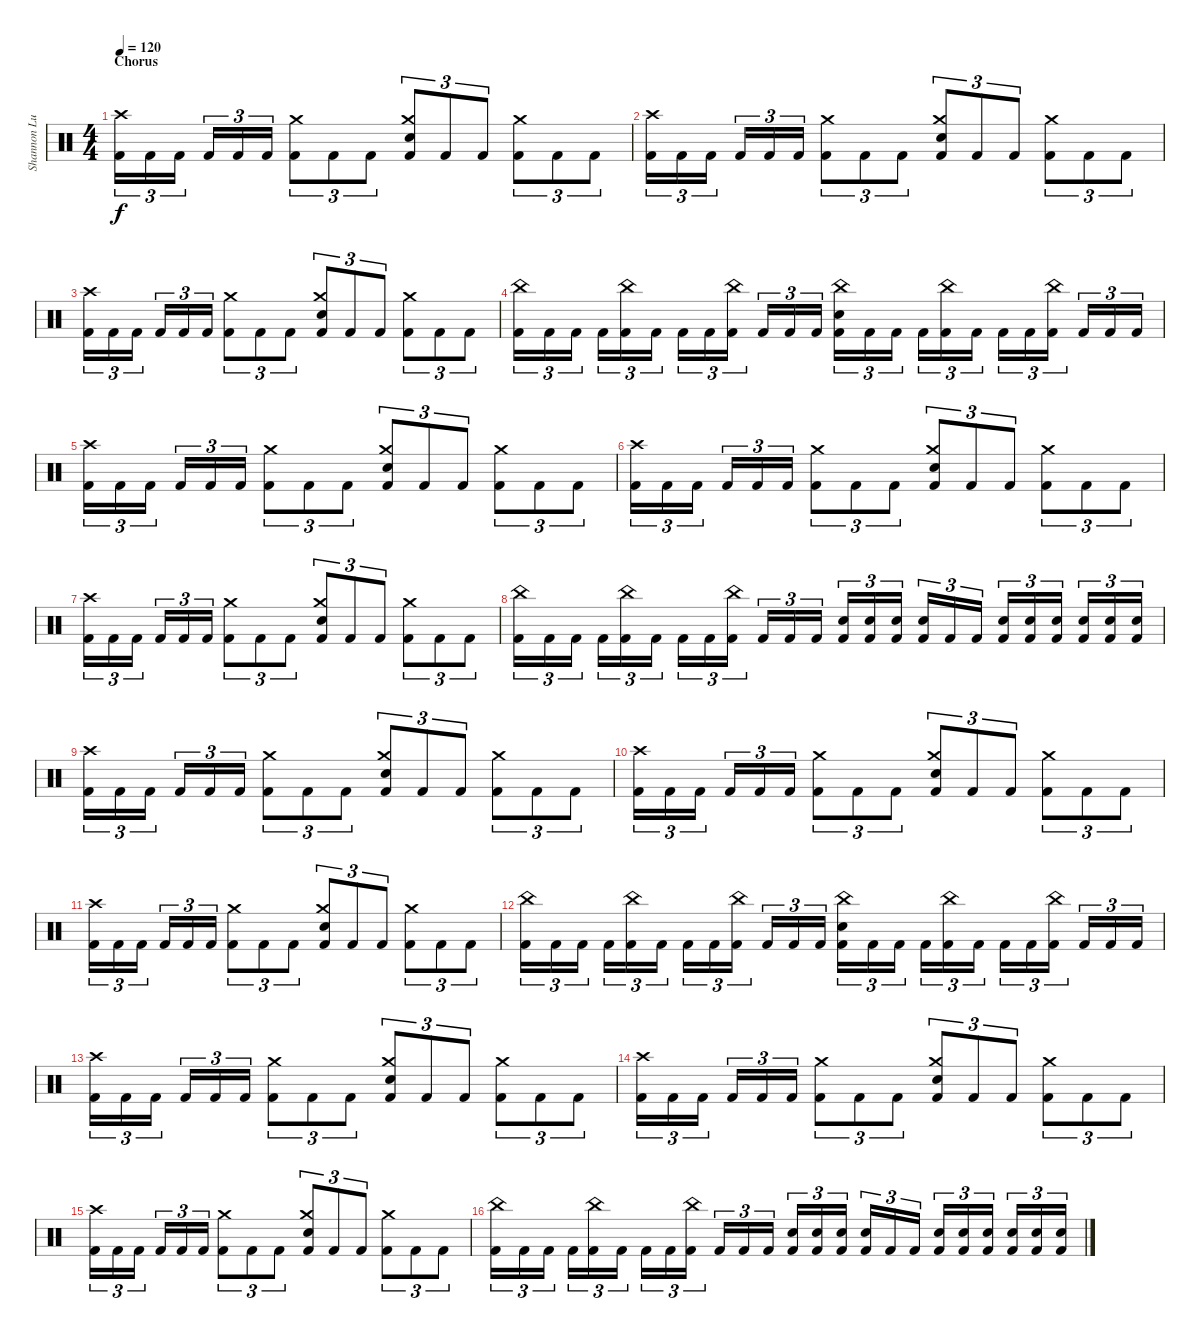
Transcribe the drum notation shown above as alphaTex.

\track ("Shannon Lucas (Drums)" "Shannon Lu") {instrument percussion}
\staff {score}
\articulation defaults
\ts (4 4)
\section ("" "Chorus")
\tempo 120
\clef neutral
\ks c
("Crash high (hit)" "Kick (hit) 2").16{tu (3 2) dy f} "Kick (hit) 2".16{tu (3 2)} "Kick (hit) 2".16{tu (3 2)} "Kick (hit) 2".16{tu (3 2)} "Kick (hit) 2".16{tu (3 2)} "Kick (hit) 2".16{tu (3 2)} ("Crash medium (hit)" "Kick (hit) 2").8{tu (3 2)} "Kick (hit) 2".8{tu (3 2)} "Kick (hit) 2".8{tu (3 2)} ("Crash medium (hit)" "Snare (hit) 2" "Kick (hit) 2").8{tu (3 2)} "Kick (hit) 2".8{tu (3 2)} "Kick (hit) 2".8{tu (3 2)} ("Crash medium (hit)" "Kick (hit) 2").8{tu (3 2)} "Kick (hit) 2".8{tu (3 2)} "Kick (hit) 2".8{tu (3 2)} |
("Crash high (hit)" "Kick (hit) 2").16{tu (3 2)} "Kick (hit) 2".16{tu (3 2)} "Kick (hit) 2".16{tu (3 2)} "Kick (hit) 2".16{tu (3 2)} "Kick (hit) 2".16{tu (3 2)} "Kick (hit) 2".16{tu (3 2)} ("Crash medium (hit)" "Kick (hit) 2").8{tu (3 2)} "Kick (hit) 2".8{tu (3 2)} "Kick (hit) 2".8{tu (3 2)} ("Crash medium (hit)" "Snare (hit) 2" "Kick (hit) 2").8{tu (3 2)} "Kick (hit) 2".8{tu (3 2)} "Kick (hit) 2".8{tu (3 2)} ("Crash medium (hit)" "Kick (hit) 2").8{tu (3 2)} "Kick (hit) 2".8{tu (3 2)} "Kick (hit) 2".8{tu (3 2)} |
("Crash high (hit)" "Kick (hit) 2").16{tu (3 2)} "Kick (hit) 2".16{tu (3 2)} "Kick (hit) 2".16{tu (3 2)} "Kick (hit) 2".16{tu (3 2)} "Kick (hit) 2".16{tu (3 2)} "Kick (hit) 2".16{tu (3 2)} ("Crash medium (hit)" "Kick (hit) 2").8{tu (3 2)} "Kick (hit) 2".8{tu (3 2)} "Kick (hit) 2".8{tu (3 2)} ("Crash medium (hit)" "Snare (hit) 2" "Kick (hit) 2").8{tu (3 2)} "Kick (hit) 2".8{tu (3 2)} "Kick (hit) 2".8{tu (3 2)} ("Crash medium (hit)" "Kick (hit) 2").8{tu (3 2)} "Kick (hit) 2".8{tu (3 2)} "Kick (hit) 2".8{tu (3 2)} |
("China (hit)" "Kick (hit) 2").16{tu (3 2)} "Kick (hit) 2".16{tu (3 2)} "Kick (hit) 2".16{tu (3 2)} "Kick (hit) 2".16{tu (3 2)} ("China (hit)" "Kick (hit) 2").16{tu (3 2)} "Kick (hit) 2".16{tu (3 2)} "Kick (hit) 2".16{tu (3 2)} "Kick (hit) 2".16{tu (3 2)} ("China (hit)" "Kick (hit) 2").16{tu (3 2)} "Kick (hit) 2".16{tu (3 2)} "Kick (hit) 2".16{tu (3 2)} "Kick (hit) 2".16{tu (3 2)} ("Snare (hit) 2" "China (hit)" "Kick (hit) 2").16{tu (3 2)} "Kick (hit) 2".16{tu (3 2)} "Kick (hit) 2".16{tu (3 2)} "Kick (hit) 2".16{tu (3 2)} ("China (hit)" "Kick (hit) 2").16{tu (3 2)} "Kick (hit) 2".16{tu (3 2)} "Kick (hit) 2".16{tu (3 2)} "Kick (hit) 2".16{tu (3 2)} ("China (hit)" "Kick (hit) 2").16{tu (3 2)} "Kick (hit) 2".16{tu (3 2)} "Kick (hit) 2".16{tu (3 2)} "Kick (hit) 2".16{tu (3 2)} |
("Crash high (hit)" "Kick (hit) 2").16{tu (3 2)} "Kick (hit) 2".16{tu (3 2)} "Kick (hit) 2".16{tu (3 2)} "Kick (hit) 2".16{tu (3 2)} "Kick (hit) 2".16{tu (3 2)} "Kick (hit) 2".16{tu (3 2)} ("Crash medium (hit)" "Kick (hit) 2").8{tu (3 2)} "Kick (hit) 2".8{tu (3 2)} "Kick (hit) 2".8{tu (3 2)} ("Crash medium (hit)" "Snare (hit) 2" "Kick (hit) 2").8{tu (3 2)} "Kick (hit) 2".8{tu (3 2)} "Kick (hit) 2".8{tu (3 2)} ("Crash medium (hit)" "Kick (hit) 2").8{tu (3 2)} "Kick (hit) 2".8{tu (3 2)} "Kick (hit) 2".8{tu (3 2)} |
("Crash high (hit)" "Kick (hit) 2").16{tu (3 2)} "Kick (hit) 2".16{tu (3 2)} "Kick (hit) 2".16{tu (3 2)} "Kick (hit) 2".16{tu (3 2)} "Kick (hit) 2".16{tu (3 2)} "Kick (hit) 2".16{tu (3 2)} ("Crash medium (hit)" "Kick (hit) 2").8{tu (3 2)} "Kick (hit) 2".8{tu (3 2)} "Kick (hit) 2".8{tu (3 2)} ("Crash medium (hit)" "Snare (hit) 2" "Kick (hit) 2").8{tu (3 2)} "Kick (hit) 2".8{tu (3 2)} "Kick (hit) 2".8{tu (3 2)} ("Crash medium (hit)" "Kick (hit) 2").8{tu (3 2)} "Kick (hit) 2".8{tu (3 2)} "Kick (hit) 2".8{tu (3 2)} |
("Crash high (hit)" "Kick (hit) 2").16{tu (3 2)} "Kick (hit) 2".16{tu (3 2)} "Kick (hit) 2".16{tu (3 2)} "Kick (hit) 2".16{tu (3 2)} "Kick (hit) 2".16{tu (3 2)} "Kick (hit) 2".16{tu (3 2)} ("Crash medium (hit)" "Kick (hit) 2").8{tu (3 2)} "Kick (hit) 2".8{tu (3 2)} "Kick (hit) 2".8{tu (3 2)} ("Crash medium (hit)" "Snare (hit) 2" "Kick (hit) 2").8{tu (3 2)} "Kick (hit) 2".8{tu (3 2)} "Kick (hit) 2".8{tu (3 2)} ("Crash medium (hit)" "Kick (hit) 2").8{tu (3 2)} "Kick (hit) 2".8{tu (3 2)} "Kick (hit) 2".8{tu (3 2)} |
("China (hit)" "Kick (hit) 2").16{tu (3 2)} "Kick (hit) 2".16{tu (3 2)} "Kick (hit) 2".16{tu (3 2)} "Kick (hit) 2".16{tu (3 2)} ("China (hit)" "Kick (hit) 2").16{tu (3 2)} "Kick (hit) 2".16{tu (3 2)} "Kick (hit) 2".16{tu (3 2)} "Kick (hit) 2".16{tu (3 2)} ("China (hit)" "Kick (hit) 2").16{tu (3 2)} "Kick (hit) 2".16{tu (3 2)} "Kick (hit) 2".16{tu (3 2)} "Kick (hit) 2".16{tu (3 2)} ("Snare (hit) 2" "Kick (hit) 2").16{tu (3 2)} ("Snare (hit) 2" "Kick (hit) 2").16{tu (3 2)} ("Snare (hit) 2" "Kick (hit) 2").16{tu (3 2)} ("Snare (hit) 2" "Kick (hit) 2").16{tu (3 2)} "Kick (hit) 2".16{tu (3 2)} "Kick (hit) 2".16{tu (3 2)} ("Snare (hit) 2" "Kick (hit) 2").16{tu (3 2)} ("Snare (hit) 2" "Kick (hit) 2").16{tu (3 2)} ("Snare (hit) 2" "Kick (hit) 2").16{tu (3 2)} ("Snare (hit) 2" "Kick (hit) 2").16{tu (3 2)} ("Snare (hit) 2" "Kick (hit) 2").16{tu (3 2)} ("Snare (hit) 2" "Kick (hit) 2").16{tu (3 2)} |
("Crash high (hit)" "Kick (hit) 2").16{tu (3 2)} "Kick (hit) 2".16{tu (3 2)} "Kick (hit) 2".16{tu (3 2)} "Kick (hit) 2".16{tu (3 2)} "Kick (hit) 2".16{tu (3 2)} "Kick (hit) 2".16{tu (3 2)} ("Crash medium (hit)" "Kick (hit) 2").8{tu (3 2)} "Kick (hit) 2".8{tu (3 2)} "Kick (hit) 2".8{tu (3 2)} ("Crash medium (hit)" "Snare (hit) 2" "Kick (hit) 2").8{tu (3 2)} "Kick (hit) 2".8{tu (3 2)} "Kick (hit) 2".8{tu (3 2)} ("Crash medium (hit)" "Kick (hit) 2").8{tu (3 2)} "Kick (hit) 2".8{tu (3 2)} "Kick (hit) 2".8{tu (3 2)} |
("Crash high (hit)" "Kick (hit) 2").16{tu (3 2)} "Kick (hit) 2".16{tu (3 2)} "Kick (hit) 2".16{tu (3 2)} "Kick (hit) 2".16{tu (3 2)} "Kick (hit) 2".16{tu (3 2)} "Kick (hit) 2".16{tu (3 2)} ("Crash medium (hit)" "Kick (hit) 2").8{tu (3 2)} "Kick (hit) 2".8{tu (3 2)} "Kick (hit) 2".8{tu (3 2)} ("Crash medium (hit)" "Snare (hit) 2" "Kick (hit) 2").8{tu (3 2)} "Kick (hit) 2".8{tu (3 2)} "Kick (hit) 2".8{tu (3 2)} ("Crash medium (hit)" "Kick (hit) 2").8{tu (3 2)} "Kick (hit) 2".8{tu (3 2)} "Kick (hit) 2".8{tu (3 2)} |
("Crash high (hit)" "Kick (hit) 2").16{tu (3 2)} "Kick (hit) 2".16{tu (3 2)} "Kick (hit) 2".16{tu (3 2)} "Kick (hit) 2".16{tu (3 2)} "Kick (hit) 2".16{tu (3 2)} "Kick (hit) 2".16{tu (3 2)} ("Crash medium (hit)" "Kick (hit) 2").8{tu (3 2)} "Kick (hit) 2".8{tu (3 2)} "Kick (hit) 2".8{tu (3 2)} ("Crash medium (hit)" "Snare (hit) 2" "Kick (hit) 2").8{tu (3 2)} "Kick (hit) 2".8{tu (3 2)} "Kick (hit) 2".8{tu (3 2)} ("Crash medium (hit)" "Kick (hit) 2").8{tu (3 2)} "Kick (hit) 2".8{tu (3 2)} "Kick (hit) 2".8{tu (3 2)} |
("China (hit)" "Kick (hit) 2").16{tu (3 2)} "Kick (hit) 2".16{tu (3 2)} "Kick (hit) 2".16{tu (3 2)} "Kick (hit) 2".16{tu (3 2)} ("China (hit)" "Kick (hit) 2").16{tu (3 2)} "Kick (hit) 2".16{tu (3 2)} "Kick (hit) 2".16{tu (3 2)} "Kick (hit) 2".16{tu (3 2)} ("China (hit)" "Kick (hit) 2").16{tu (3 2)} "Kick (hit) 2".16{tu (3 2)} "Kick (hit) 2".16{tu (3 2)} "Kick (hit) 2".16{tu (3 2)} ("Snare (hit) 2" "China (hit)" "Kick (hit) 2").16{tu (3 2)} "Kick (hit) 2".16{tu (3 2)} "Kick (hit) 2".16{tu (3 2)} "Kick (hit) 2".16{tu (3 2)} ("China (hit)" "Kick (hit) 2").16{tu (3 2)} "Kick (hit) 2".16{tu (3 2)} "Kick (hit) 2".16{tu (3 2)} "Kick (hit) 2".16{tu (3 2)} ("China (hit)" "Kick (hit) 2").16{tu (3 2)} "Kick (hit) 2".16{tu (3 2)} "Kick (hit) 2".16{tu (3 2)} "Kick (hit) 2".16{tu (3 2)} |
("Crash high (hit)" "Kick (hit) 2").16{tu (3 2)} "Kick (hit) 2".16{tu (3 2)} "Kick (hit) 2".16{tu (3 2)} "Kick (hit) 2".16{tu (3 2)} "Kick (hit) 2".16{tu (3 2)} "Kick (hit) 2".16{tu (3 2)} ("Crash medium (hit)" "Kick (hit) 2").8{tu (3 2)} "Kick (hit) 2".8{tu (3 2)} "Kick (hit) 2".8{tu (3 2)} ("Crash medium (hit)" "Snare (hit) 2" "Kick (hit) 2").8{tu (3 2)} "Kick (hit) 2".8{tu (3 2)} "Kick (hit) 2".8{tu (3 2)} ("Crash medium (hit)" "Kick (hit) 2").8{tu (3 2)} "Kick (hit) 2".8{tu (3 2)} "Kick (hit) 2".8{tu (3 2)} |
("Crash high (hit)" "Kick (hit) 2").16{tu (3 2)} "Kick (hit) 2".16{tu (3 2)} "Kick (hit) 2".16{tu (3 2)} "Kick (hit) 2".16{tu (3 2)} "Kick (hit) 2".16{tu (3 2)} "Kick (hit) 2".16{tu (3 2)} ("Crash medium (hit)" "Kick (hit) 2").8{tu (3 2)} "Kick (hit) 2".8{tu (3 2)} "Kick (hit) 2".8{tu (3 2)} ("Crash medium (hit)" "Snare (hit) 2" "Kick (hit) 2").8{tu (3 2)} "Kick (hit) 2".8{tu (3 2)} "Kick (hit) 2".8{tu (3 2)} ("Crash medium (hit)" "Kick (hit) 2").8{tu (3 2)} "Kick (hit) 2".8{tu (3 2)} "Kick (hit) 2".8{tu (3 2)} |
("Crash high (hit)" "Kick (hit) 2").16{tu (3 2)} "Kick (hit) 2".16{tu (3 2)} "Kick (hit) 2".16{tu (3 2)} "Kick (hit) 2".16{tu (3 2)} "Kick (hit) 2".16{tu (3 2)} "Kick (hit) 2".16{tu (3 2)} ("Crash medium (hit)" "Kick (hit) 2").8{tu (3 2)} "Kick (hit) 2".8{tu (3 2)} "Kick (hit) 2".8{tu (3 2)} ("Crash medium (hit)" "Snare (hit) 2" "Kick (hit) 2").8{tu (3 2)} "Kick (hit) 2".8{tu (3 2)} "Kick (hit) 2".8{tu (3 2)} ("Crash medium (hit)" "Kick (hit) 2").8{tu (3 2)} "Kick (hit) 2".8{tu (3 2)} "Kick (hit) 2".8{tu (3 2)} |
("China (hit)" "Kick (hit) 2").16{tu (3 2)} "Kick (hit) 2".16{tu (3 2)} "Kick (hit) 2".16{tu (3 2)} "Kick (hit) 2".16{tu (3 2)} ("China (hit)" "Kick (hit) 2").16{tu (3 2)} "Kick (hit) 2".16{tu (3 2)} "Kick (hit) 2".16{tu (3 2)} "Kick (hit) 2".16{tu (3 2)} ("China (hit)" "Kick (hit) 2").16{tu (3 2)} "Kick (hit) 2".16{tu (3 2)} "Kick (hit) 2".16{tu (3 2)} "Kick (hit) 2".16{tu (3 2)} ("Snare (hit) 2" "Kick (hit) 2").16{tu (3 2)} ("Snare (hit) 2" "Kick (hit) 2").16{tu (3 2)} ("Snare (hit) 2" "Kick (hit) 2").16{tu (3 2)} ("Snare (hit) 2" "Kick (hit) 2").16{tu (3 2)} "Kick (hit) 2".16{tu (3 2)} "Kick (hit) 2".16{tu (3 2)} ("Snare (hit) 2" "Kick (hit) 2").16{tu (3 2)} ("Snare (hit) 2" "Kick (hit) 2").16{tu (3 2)} ("Snare (hit) 2" "Kick (hit) 2").16{tu (3 2)} ("Snare (hit) 2" "Kick (hit) 2").16{tu (3 2)} ("Snare (hit) 2" "Kick (hit) 2").16{tu (3 2)} ("Snare (hit) 2" "Kick (hit) 2").16{tu (3 2)}
